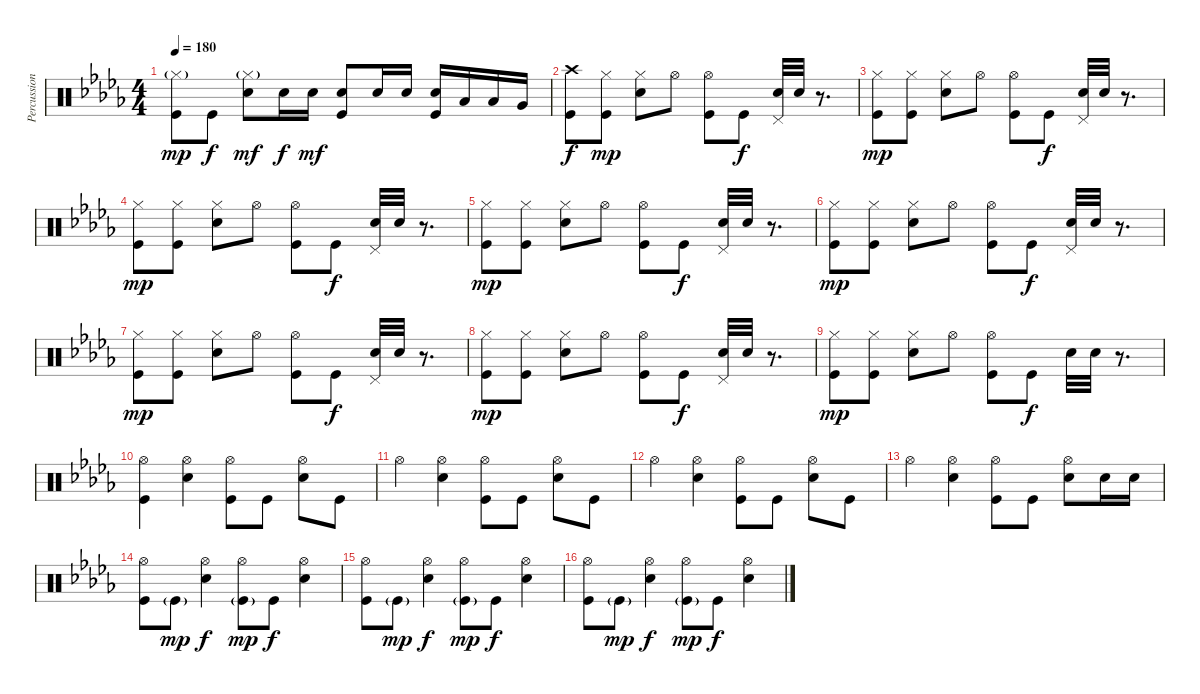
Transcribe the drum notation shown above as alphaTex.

\track ("Percussion" "Percussion") {instrument percussion}
\staff {score}
\articulation defaults
\ts (4 4)
\tempo 180
\clef neutral
\ks db
("Hi-Hat (closed)"{g} "Kick (hit)").8{dy mp} "Kick (hit)".8{dy f} ("Hi-Hat (closed)"{g} "Electric Snare (hit)").8{dy mf} "Electric Snare (hit)".16{dy f} "Electric Snare (hit)".16{dy mf} ("Electric Snare (hit)" "Kick (hit)").8 "Electric Snare (hit)".16 "Electric Snare (hit)".16 ("Electric Snare (hit)" "Kick (hit)").16 "Low Tom (hit)".16 "Low Tom (hit)".16 "Very Low Tom (hit)".16 |
("Crash high (hit)" "Kick (hit)").8{dy f} ("Hi-Hat (closed)" "Kick (hit)").8{dy mp} ("Hi-Hat (closed)" "Electric Snare (hit)").8 "Hi-Hat (open)".8 ("Hi-Hat (open)" "Kick (hit)").8 "Kick (hit)".8{dy f} ("Electric Snare (hit)" "Pedal Hi-Hat (hit)").32 "Electric Snare (hit)".32 r.8{d} |
("Hi-Hat (closed)" "Kick (hit)").8{dy mp} ("Hi-Hat (closed)" "Kick (hit)").8 ("Hi-Hat (closed)" "Electric Snare (hit)").8 "Hi-Hat (open)".8 ("Hi-Hat (open)" "Kick (hit)").8 "Kick (hit)".8{dy f} ("Electric Snare (hit)" "Pedal Hi-Hat (hit)").32 "Electric Snare (hit)".32 r.8{d} |
("Hi-Hat (closed)" "Kick (hit)").8{dy mp} ("Hi-Hat (closed)" "Kick (hit)").8 ("Hi-Hat (closed)" "Electric Snare (hit)").8 "Hi-Hat (open)".8 ("Hi-Hat (open)" "Kick (hit)").8 "Kick (hit)".8{dy f} ("Electric Snare (hit)" "Pedal Hi-Hat (hit)").32 "Electric Snare (hit)".32 r.8{d} |
("Hi-Hat (closed)" "Kick (hit)").8{dy mp} ("Hi-Hat (closed)" "Kick (hit)").8 ("Hi-Hat (closed)" "Electric Snare (hit)").8 "Hi-Hat (open)".8 ("Hi-Hat (open)" "Kick (hit)").8 "Kick (hit)".8{dy f} ("Electric Snare (hit)" "Pedal Hi-Hat (hit)").32 "Electric Snare (hit)".32 r.8{d} |
("Hi-Hat (closed)" "Kick (hit)").8{dy mp} ("Hi-Hat (closed)" "Kick (hit)").8 ("Hi-Hat (closed)" "Electric Snare (hit)").8 "Hi-Hat (open)".8 ("Hi-Hat (open)" "Kick (hit)").8 "Kick (hit)".8{dy f} ("Electric Snare (hit)" "Pedal Hi-Hat (hit)").32 "Electric Snare (hit)".32 r.8{d} |
("Hi-Hat (closed)" "Kick (hit)").8{dy mp} ("Hi-Hat (closed)" "Kick (hit)").8 ("Hi-Hat (closed)" "Electric Snare (hit)").8 "Hi-Hat (open)".8 ("Hi-Hat (open)" "Kick (hit)").8 "Kick (hit)".8{dy f} ("Electric Snare (hit)" "Pedal Hi-Hat (hit)").32 "Electric Snare (hit)".32 r.8{d} |
("Hi-Hat (closed)" "Kick (hit)").8{dy mp} ("Hi-Hat (closed)" "Kick (hit)").8 ("Hi-Hat (closed)" "Electric Snare (hit)").8 "Hi-Hat (open)".8 ("Hi-Hat (open)" "Kick (hit)").8 "Kick (hit)".8{dy f} ("Electric Snare (hit)" "Pedal Hi-Hat (hit)").32 "Electric Snare (hit)".32 r.8{d} |
("Hi-Hat (closed)" "Kick (hit)").8{dy mp} ("Hi-Hat (closed)" "Kick (hit)").8 ("Hi-Hat (closed)" "Electric Snare (hit)").8 "Hi-Hat (open)".8 ("Hi-Hat (open)" "Kick (hit)").8 "Kick (hit)".8{dy f} "Electric Snare (hit)".32 "Electric Snare (hit)".32 r.8{d} |
("Hi-Hat (open)" "Kick (hit)").4 ("Hi-Hat (open)" "Electric Snare (hit)").4 ("Hi-Hat (open)" "Kick (hit)").8 "Kick (hit)".8 ("Hi-Hat (open)" "Electric Snare (hit)").8 "Kick (hit)".8 |
"Hi-Hat (open)".4 ("Hi-Hat (open)" "Electric Snare (hit)").4 ("Hi-Hat (open)" "Kick (hit)").8 "Kick (hit)".8 ("Hi-Hat (open)" "Electric Snare (hit)").8 "Kick (hit)".8 |
"Hi-Hat (open)".4 ("Hi-Hat (open)" "Electric Snare (hit)").4 ("Hi-Hat (open)" "Kick (hit)").8 "Kick (hit)".8 ("Hi-Hat (open)" "Electric Snare (hit)").8 "Kick (hit)".8 |
"Hi-Hat (open)".4 ("Hi-Hat (open)" "Electric Snare (hit)").4 ("Hi-Hat (open)" "Kick (hit)").8 "Kick (hit)".8 ("Hi-Hat (open)" "Electric Snare (hit)").8 "Electric Snare (hit)".16 "Electric Snare (hit)".16 |
("Hi-Hat (open)" "Kick (hit)").8 "Kick (hit)"{g}.8{dy mp} ("Hi-Hat (open)" "Electric Snare (hit)").4{dy f} ("Hi-Hat (open)" "Kick (hit)"{g}).8{dy mp} "Kick (hit)".8{dy f} ("Hi-Hat (open)" "Electric Snare (hit)").4 |
("Hi-Hat (open)" "Kick (hit)").8 "Kick (hit)"{g}.8{dy mp} ("Hi-Hat (open)" "Electric Snare (hit)").4{dy f} ("Hi-Hat (open)" "Kick (hit)"{g}).8{dy mp} "Kick (hit)".8{dy f} ("Hi-Hat (open)" "Electric Snare (hit)").4 |
("Hi-Hat (open)" "Kick (hit)").8 "Kick (hit)"{g}.8{dy mp} ("Hi-Hat (open)" "Electric Snare (hit)").4{dy f} ("Hi-Hat (open)" "Kick (hit)"{g}).8{dy mp} "Kick (hit)".8{dy f} ("Hi-Hat (open)" "Electric Snare (hit)").4
